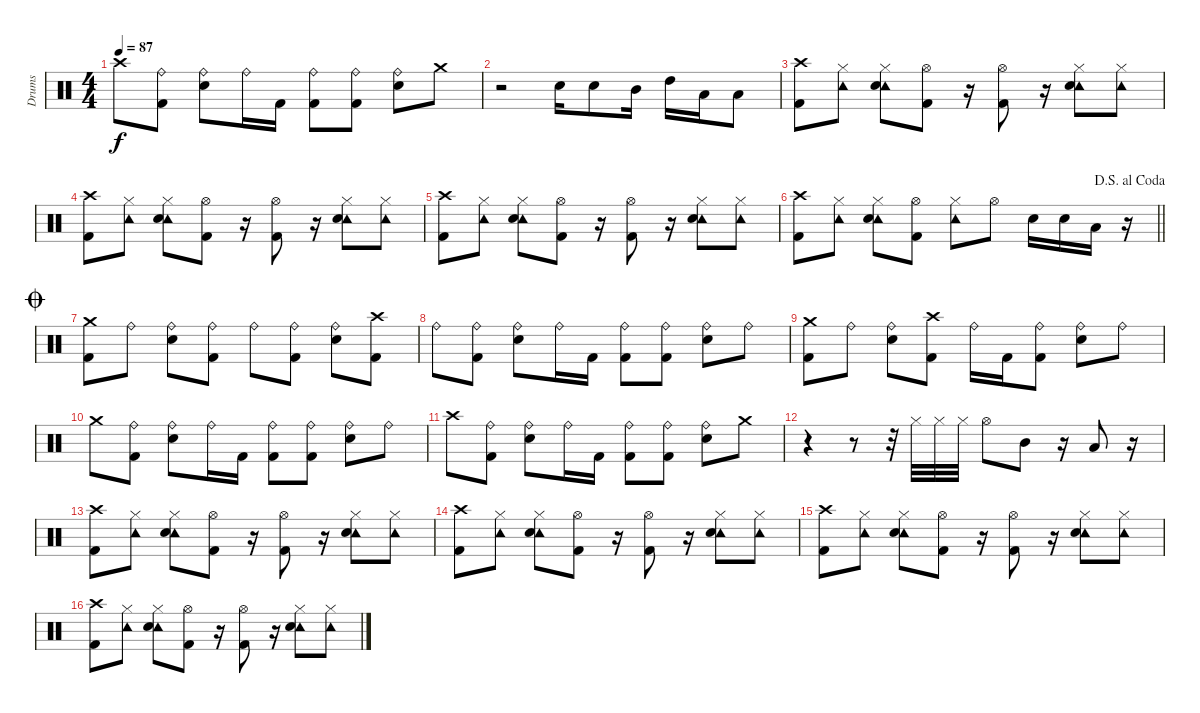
\track ("Drums" "Drums") {instrument percussion}
\staff {score}
\articulation defaults
\ts (4 4)
\tempo 87
\clef neutral
\ks c "Crash high (hit)".8{dy f}
("Ride (bell)" "Kick (hit) 2").8 ("Ride (bell)" "Snare (hit) 2").8 "Ride (bell)".16 "Kick (hit) 2".16 ("Ride (bell)" "Kick (hit) 2").8 ("Ride (bell)" "Kick (hit) 2").8 ("Ride (bell)" "Snare (hit) 2").8 "Crash medium (hit)".8 |
r.2 "Snare (hit) 2".16 "Snare (hit) 2".8 "Mid Tom (hit)".16 "High Tom (hit)".16 "Low Tom (hit)".16 "Low Floor Tom (hit)".8 |
("Crash high (hit)" "Kick (hit) 2").8 ("Tambourine (hit)" "Hi-Hat (closed)").8 ("Tambourine (hit)" "Hi-Hat (closed)" "Snare (hit) 2").8 ("Hi-Hat (open)" "Kick (hit) 2").8 r.16 ("Hi-Hat (open)" "Kick (hit) 2").8 r.16 ("Tambourine (hit)" "Hi-Hat (closed)" "Snare (hit) 2").8 ("Tambourine (hit)" "Hi-Hat (closed)").8 |
("Crash high (hit)" "Kick (hit) 2").8 ("Tambourine (hit)" "Hi-Hat (closed)").8 ("Tambourine (hit)" "Hi-Hat (closed)" "Snare (hit) 2").8 ("Hi-Hat (open)" "Kick (hit) 2").8 r.16 ("Hi-Hat (open)" "Kick (hit) 2").8 r.16 ("Tambourine (hit)" "Hi-Hat (closed)" "Snare (hit) 2").8 ("Tambourine (hit)" "Hi-Hat (closed)").8 |
("Crash high (hit)" "Kick (hit) 2").8 ("Tambourine (hit)" "Hi-Hat (closed)").8 ("Tambourine (hit)" "Hi-Hat (closed)" "Snare (hit) 2").8 ("Hi-Hat (open)" "Kick (hit) 2").8 r.16 ("Hi-Hat (open)" "Kick (hit) 2").8 r.16 ("Tambourine (hit)" "Hi-Hat (closed)" "Snare (hit) 2").8 ("Tambourine (hit)" "Hi-Hat (closed)").8 |
\jump dalsegnoalcoda
\barLineRight lightlight
("Crash high (hit)" "Kick (hit) 2").8 ("Tambourine (hit)" "Hi-Hat (closed)").8 ("Tambourine (hit)" "Hi-Hat (closed)" "Snare (hit) 2").8 ("Hi-Hat (open)" "Kick (hit) 2").8 ("Tambourine (hit)" "Hi-Hat (closed)").8 "Hi-Hat (open)".8 "Snare (hit) 2".16 "Snare (hit) 2".16 "Low Tom (hit)".16 r.16 |
\jump coda
("Crash medium (hit)" "Kick (hit) 2").8 "Ride (bell)".8 ("Ride (bell)" "Snare (hit) 2").8 ("Ride (bell)" "Kick (hit) 2").8 "Ride (bell)".8 ("Ride (bell)" "Kick (hit) 2").8 ("Ride (bell)" "Snare (hit) 2").8 ("Crash high (hit)" "Kick (hit) 2").8 |
"Ride (bell)".8 ("Ride (bell)" "Kick (hit) 2").8 ("Ride (bell)" "Snare (hit) 2").8 "Ride (bell)".16 "Kick (hit) 2".16 ("Ride (bell)" "Kick (hit) 2").8 ("Ride (bell)" "Kick (hit) 2").8 ("Ride (bell)" "Snare (hit) 2").8 "Ride (bell)".8 |
("Crash medium (hit)" "Kick (hit) 2").8 "Ride (bell)".8 ("Ride (bell)" "Snare (hit) 2").8 ("Crash high (hit)" "Kick (hit) 2").8 "Ride (bell)".16 "Kick (hit) 2".16 ("Ride (bell)" "Kick (hit) 2").8 ("Ride (bell)" "Snare (hit) 2").8 "Ride (bell)".8 |
"Crash medium (hit)".8 ("Ride (bell)" "Kick (hit) 2").8 ("Ride (bell)" "Snare (hit) 2").8 "Ride (bell)".16 "Kick (hit) 2".16 ("Ride (bell)" "Kick (hit) 2").8 ("Ride (bell)" "Kick (hit) 2").8 ("Ride (bell)" "Snare (hit) 2").8 "Ride (bell)".8 |
"Crash high (hit)".8 ("Ride (bell)" "Kick (hit) 2").8 ("Ride (bell)" "Snare (hit) 2").8 "Ride (bell)".16 "Kick (hit) 2".16 ("Ride (bell)" "Kick (hit) 2").8 ("Ride (bell)" "Kick (hit) 2").8 ("Ride (bell)" "Snare (hit) 2").8 "Crash medium (hit)".8 |
r.4 r.8 r.32 "Hi-Hat (closed)".32 "Hi-Hat (closed)".32 "Hi-Hat (closed)".32 "Hi-Hat (open)".8 "Mid Tom (hit)".8 r.16 "Low Floor Tom (hit)".8 r.16 |
("Crash high (hit)" "Kick (hit) 2").8 ("Tambourine (hit)" "Hi-Hat (closed)").8 ("Tambourine (hit)" "Hi-Hat (closed)" "Snare (hit) 2").8 ("Hi-Hat (open)" "Kick (hit) 2").8 r.16 ("Hi-Hat (open)" "Kick (hit) 2").8 r.16 ("Tambourine (hit)" "Hi-Hat (closed)" "Snare (hit) 2").8 ("Tambourine (hit)" "Hi-Hat (closed)").8 |
("Crash high (hit)" "Kick (hit) 2").8{volume 12} ("Tambourine (hit)" "Hi-Hat (closed)").8 ("Tambourine (hit)" "Hi-Hat (closed)" "Snare (hit) 2").8 ("Hi-Hat (open)" "Kick (hit) 2").8 r.16 ("Hi-Hat (open)" "Kick (hit) 2").8 r.16 ("Tambourine (hit)" "Hi-Hat (closed)" "Snare (hit) 2").8 ("Tambourine (hit)" "Hi-Hat (closed)").8 |
("Crash high (hit)" "Kick (hit) 2").8 ("Tambourine (hit)" "Hi-Hat (closed)").8 ("Tambourine (hit)" "Hi-Hat (closed)" "Snare (hit) 2").8 ("Hi-Hat (open)" "Kick (hit) 2").8 r.16 ("Hi-Hat (open)" "Kick (hit) 2").8 r.16 ("Tambourine (hit)" "Hi-Hat (closed)" "Snare (hit) 2").8 ("Tambourine (hit)" "Hi-Hat (closed)").8 |
("Crash high (hit)" "Kick (hit) 2").8{volume 10} ("Tambourine (hit)" "Hi-Hat (closed)").8 ("Tambourine (hit)" "Hi-Hat (closed)" "Snare (hit) 2").8 ("Hi-Hat (open)" "Kick (hit) 2").8 r.16 ("Hi-Hat (open)" "Kick (hit) 2").8 r.16 ("Tambourine (hit)" "Hi-Hat (closed)" "Snare (hit) 2").8 ("Tambourine (hit)" "Hi-Hat (closed)").8
